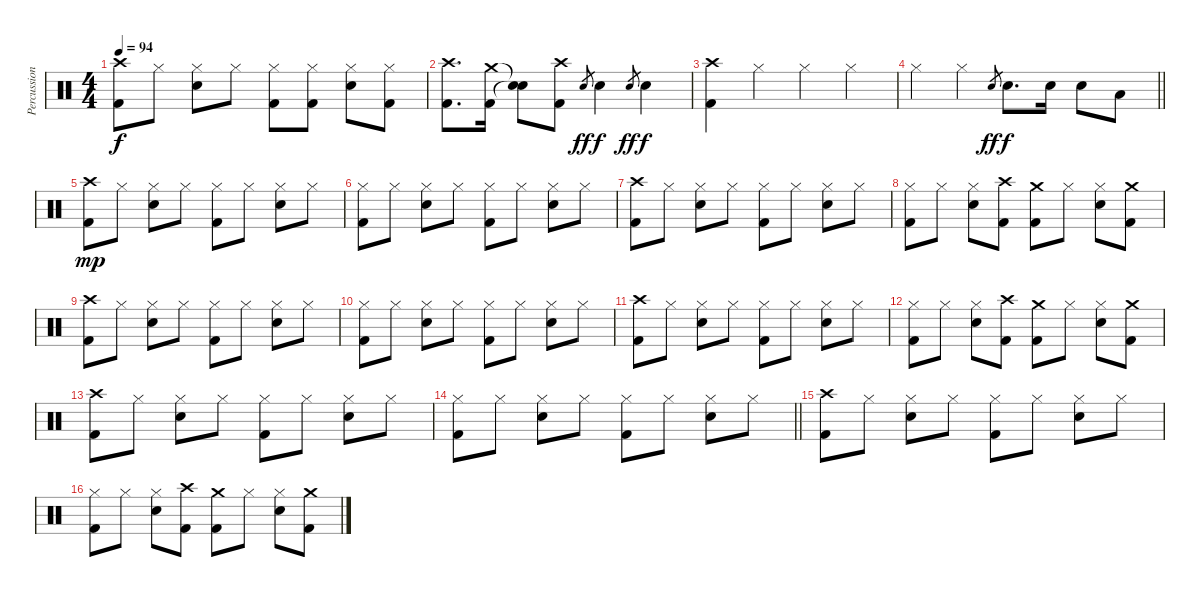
\track ("Percussion" "Percussion") {instrument percussion}
\staff {score}
\articulation defaults
\ts (4 4)
\tempo 94
\clef neutral
\ks c
("Crash high (hit)" "Kick (hit) 2").8{dy f} "Hi-Hat (closed)".8 ("Hi-Hat (closed)" "Snare (hit) 2").8 "Hi-Hat (closed)".8 ("Hi-Hat (closed)" "Kick (hit) 2").8 ("Hi-Hat (closed)" "Kick (hit) 2").8 ("Hi-Hat (closed)" "Snare (hit) 2").8 ("Hi-Hat (closed)" "Kick (hit) 2").8 |
("Crash high (hit)" "Kick (hit) 2").8{d} ("Crash medium (hit)" "Kick (hit) 2").16 ("Snare (hit)"{t} "Snare (hit)"{t}).8 ("Crash high (hit)" "Kick (hit) 2").8 "Snare (hit) 2".8{gr dy ff} "Snare (hit) 2".4{dy f} "Snare (hit) 2".8{gr dy ff} "Snare (hit) 2".4{dy f} |
("Crash high (hit)" "Kick (hit) 2").4 "Hi-Hat (closed)".4 "Hi-Hat (closed)".4 "Hi-Hat (closed)".4 |
\barLineRight lightlight "Hi-Hat (closed)".4 "Hi-Hat (closed)".4 "Snare (hit) 2".8{gr dy ff} "Snare (hit) 2".8{d dy f} "Snare (hit) 2".16 "Snare (hit) 2".8 "Low Tom (hit)".8
|
("Crash high (hit)" "Kick (hit) 2").8{dy mp} "Hi-Hat (closed)".8 ("Hi-Hat (closed)" "Snare (hit) 2").8 "Hi-Hat (closed)".8 ("Hi-Hat (closed)" "Kick (hit) 2").8 "Hi-Hat (closed)".8 ("Hi-Hat (closed)" "Snare (hit) 2").8 "Hi-Hat (closed)".8 |
("Hi-Hat (closed)" "Kick (hit) 2").8 "Hi-Hat (closed)".8 ("Hi-Hat (closed)" "Snare (hit) 2").8 "Hi-Hat (closed)".8 ("Hi-Hat (closed)" "Kick (hit) 2").8 "Hi-Hat (closed)".8 ("Hi-Hat (closed)" "Snare (hit) 2").8 "Hi-Hat (closed)".8 |
("Crash high (hit)" "Kick (hit) 2").8 "Hi-Hat (closed)".8 ("Hi-Hat (closed)" "Snare (hit) 2").8 "Hi-Hat (closed)".8 ("Hi-Hat (closed)" "Kick (hit) 2").8 "Hi-Hat (closed)".8 ("Hi-Hat (closed)" "Snare (hit) 2").8 "Hi-Hat (closed)".8 |
("Hi-Hat (closed)" "Kick (hit) 2").8 "Hi-Hat (closed)".8 ("Hi-Hat (closed)" "Snare (hit) 2").8 ("Crash high (hit)" "Kick (hit) 2").8 ("Crash medium (hit)" "Kick (hit) 2").8 "Hi-Hat (closed)".8 ("Hi-Hat (closed)" "Snare (hit) 2").8 ("Crash medium (hit)" "Kick (hit) 2").8 |
("Crash high (hit)" "Kick (hit) 2").8 "Hi-Hat (closed)".8 ("Hi-Hat (closed)" "Snare (hit) 2").8 "Hi-Hat (closed)".8 ("Hi-Hat (closed)" "Kick (hit) 2").8 "Hi-Hat (closed)".8 ("Hi-Hat (closed)" "Snare (hit) 2").8 "Hi-Hat (closed)".8 |
("Hi-Hat (closed)" "Kick (hit) 2").8 "Hi-Hat (closed)".8 ("Hi-Hat (closed)" "Snare (hit) 2").8 "Hi-Hat (closed)".8 ("Hi-Hat (closed)" "Kick (hit) 2").8 "Hi-Hat (closed)".8 ("Hi-Hat (closed)" "Snare (hit) 2").8 "Hi-Hat (closed)".8 |
("Crash high (hit)" "Kick (hit) 2").8 "Hi-Hat (closed)".8 ("Hi-Hat (closed)" "Snare (hit) 2").8 "Hi-Hat (closed)".8 ("Hi-Hat (closed)" "Kick (hit) 2").8 "Hi-Hat (closed)".8 ("Hi-Hat (closed)" "Snare (hit) 2").8 "Hi-Hat (closed)".8 |
("Hi-Hat (closed)" "Kick (hit) 2").8 "Hi-Hat (closed)".8 ("Hi-Hat (closed)" "Snare (hit) 2").8 ("Crash high (hit)" "Kick (hit) 2").8 ("Crash medium (hit)" "Kick (hit) 2").8 "Hi-Hat (closed)".8 ("Hi-Hat (closed)" "Snare (hit) 2").8 ("Crash medium (hit)" "Kick (hit) 2").8 |
("Crash high (hit)" "Kick (hit) 2").8 "Hi-Hat (closed)".8 ("Hi-Hat (closed)" "Snare (hit) 2").8 "Hi-Hat (closed)".8 ("Hi-Hat (closed)" "Kick (hit) 2").8 "Hi-Hat (closed)".8 ("Hi-Hat (closed)" "Snare (hit) 2").8 "Hi-Hat (closed)".8 |
\barLineRight lightlight
("Hi-Hat (closed)" "Kick (hit) 2").8 "Hi-Hat (closed)".8 ("Hi-Hat (closed)" "Snare (hit) 2").8 "Hi-Hat (closed)".8 ("Hi-Hat (closed)" "Kick (hit) 2").8 "Hi-Hat (closed)".8 ("Hi-Hat (closed)" "Snare (hit) 2").8 "Hi-Hat (closed)".8 |
("Crash high (hit)" "Kick (hit) 2").8 "Hi-Hat (closed)".8 ("Hi-Hat (closed)" "Snare (hit) 2").8 "Hi-Hat (closed)".8 ("Hi-Hat (closed)" "Kick (hit) 2").8 "Hi-Hat (closed)".8 ("Hi-Hat (closed)" "Snare (hit) 2").8 "Hi-Hat (closed)".8 |
("Hi-Hat (closed)" "Kick (hit) 2").8 "Hi-Hat (closed)".8 ("Hi-Hat (closed)" "Snare (hit) 2").8 ("Crash high (hit)" "Kick (hit) 2").8 ("Crash medium (hit)" "Kick (hit) 2").8 "Hi-Hat (closed)".8 ("Hi-Hat (closed)" "Snare (hit) 2").8 ("Crash medium (hit)" "Kick (hit) 2").8
